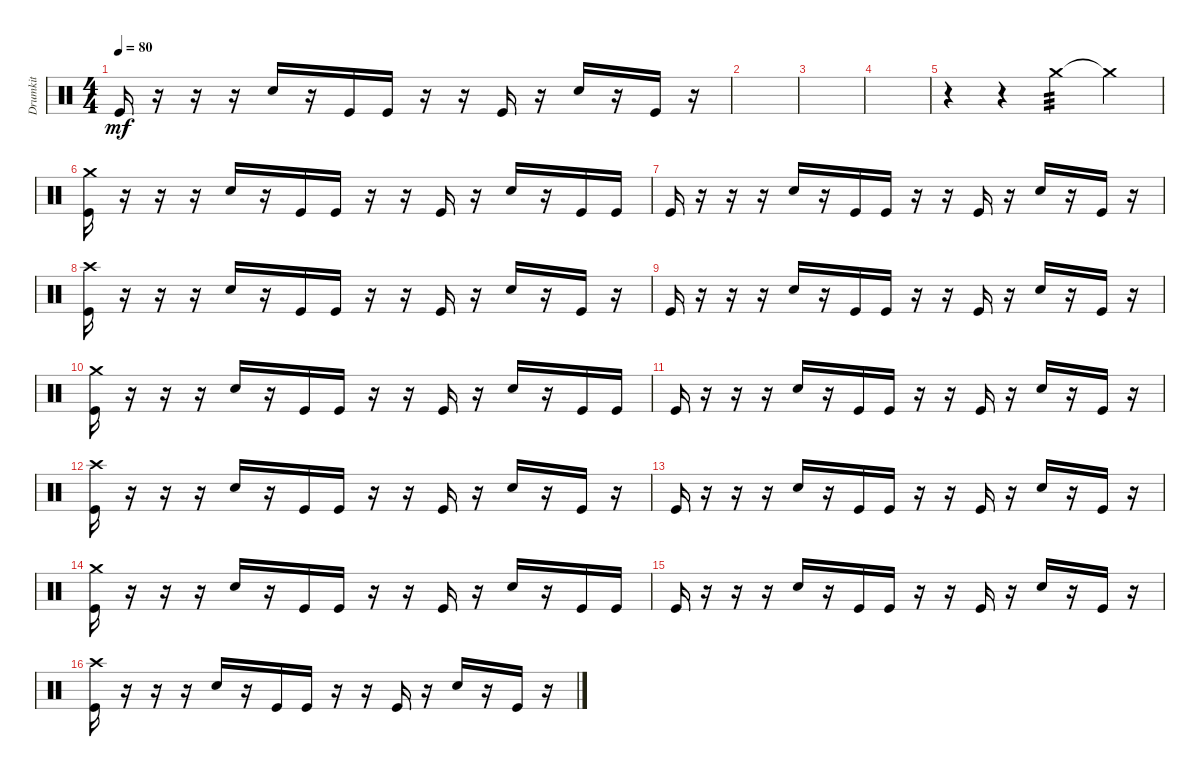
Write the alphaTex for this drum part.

\track ("Drumkit" "Drumkit") {instrument percussion}
\staff {score}
\articulation defaults
\ts (4 4)
\tempo 80
\clef neutral
\ks c "Kick (hit)".16{dy mf}
r.16 r.16 r.16 "Snare (hit) 2".16 r.16 "Kick (hit)".16 "Kick (hit)".16 r.16 r.16 "Kick (hit)".16 r.16 "Snare (hit) 2".16 r.16 "Kick (hit)".16 r.16 |
|
|
|
r.4 r.4 "Crash medium (hit)".4{tp 3 volume 2} "Crash medium (hit)"{t}.4{volume 16} |
("Kick (hit)" "Crash medium (hit)").16 r.16 r.16 r.16 "Snare (hit) 2".16 r.16 "Kick (hit)".16 "Kick (hit)".16 r.16 r.16 "Kick (hit)".16 r.16 "Snare (hit) 2".16 r.16 "Kick (hit)".16 "Kick (hit)".16 |
"Kick (hit)".16 r.16 r.16 r.16 "Snare (hit) 2".16 r.16 "Kick (hit)".16 "Kick (hit)".16 r.16 r.16 "Kick (hit)".16 r.16 "Snare (hit) 2".16 r.16 "Kick (hit)".16 r.16 |
("Kick (hit)" "Crash high (hit)").16 r.16 r.16 r.16 "Snare (hit) 2".16 r.16 "Kick (hit)".16 "Kick (hit)".16 r.16 r.16 "Kick (hit)".16 r.16 "Snare (hit) 2".16 r.16 "Kick (hit)".16 r.16 |
"Kick (hit)".16 r.16 r.16 r.16 "Snare (hit) 2".16 r.16 "Kick (hit)".16 "Kick (hit)".16 r.16 r.16 "Kick (hit)".16 r.16 "Snare (hit) 2".16 r.16 "Kick (hit)".16 r.16 |
("Kick (hit)" "Crash medium (hit)").16 r.16 r.16 r.16 "Snare (hit) 2".16 r.16 "Kick (hit)".16 "Kick (hit)".16 r.16 r.16 "Kick (hit)".16 r.16 "Snare (hit) 2".16 r.16 "Kick (hit)".16 "Kick (hit)".16 |
"Kick (hit)".16 r.16 r.16 r.16 "Snare (hit) 2".16 r.16 "Kick (hit)".16 "Kick (hit)".16 r.16 r.16 "Kick (hit)".16 r.16 "Snare (hit) 2".16 r.16 "Kick (hit)".16 r.16 |
("Kick (hit)" "Crash high (hit)").16 r.16 r.16 r.16 "Snare (hit) 2".16 r.16 "Kick (hit)".16 "Kick (hit)".16 r.16 r.16 "Kick (hit)".16 r.16 "Snare (hit) 2".16 r.16 "Kick (hit)".16 r.16 |
"Kick (hit)".16 r.16 r.16 r.16 "Snare (hit) 2".16 r.16 "Kick (hit)".16 "Kick (hit)".16 r.16 r.16 "Kick (hit)".16 r.16 "Snare (hit) 2".16 r.16 "Kick (hit)".16 r.16 |
("Kick (hit)" "Crash medium (hit)").16 r.16 r.16 r.16 "Snare (hit) 2".16 r.16 "Kick (hit)".16 "Kick (hit)".16 r.16 r.16 "Kick (hit)".16 r.16 "Snare (hit) 2".16 r.16 "Kick (hit)".16 "Kick (hit)".16 |
"Kick (hit)".16 r.16 r.16 r.16 "Snare (hit) 2".16 r.16 "Kick (hit)".16 "Kick (hit)".16 r.16 r.16 "Kick (hit)".16 r.16 "Snare (hit) 2".16 r.16 "Kick (hit)".16 r.16 |
("Kick (hit)" "Crash high (hit)").16 r.16 r.16 r.16 "Snare (hit) 2".16 r.16 "Kick (hit)".16 "Kick (hit)".16 r.16 r.16 "Kick (hit)".16 r.16 "Snare (hit) 2".16 r.16 "Kick (hit)".16 r.16
